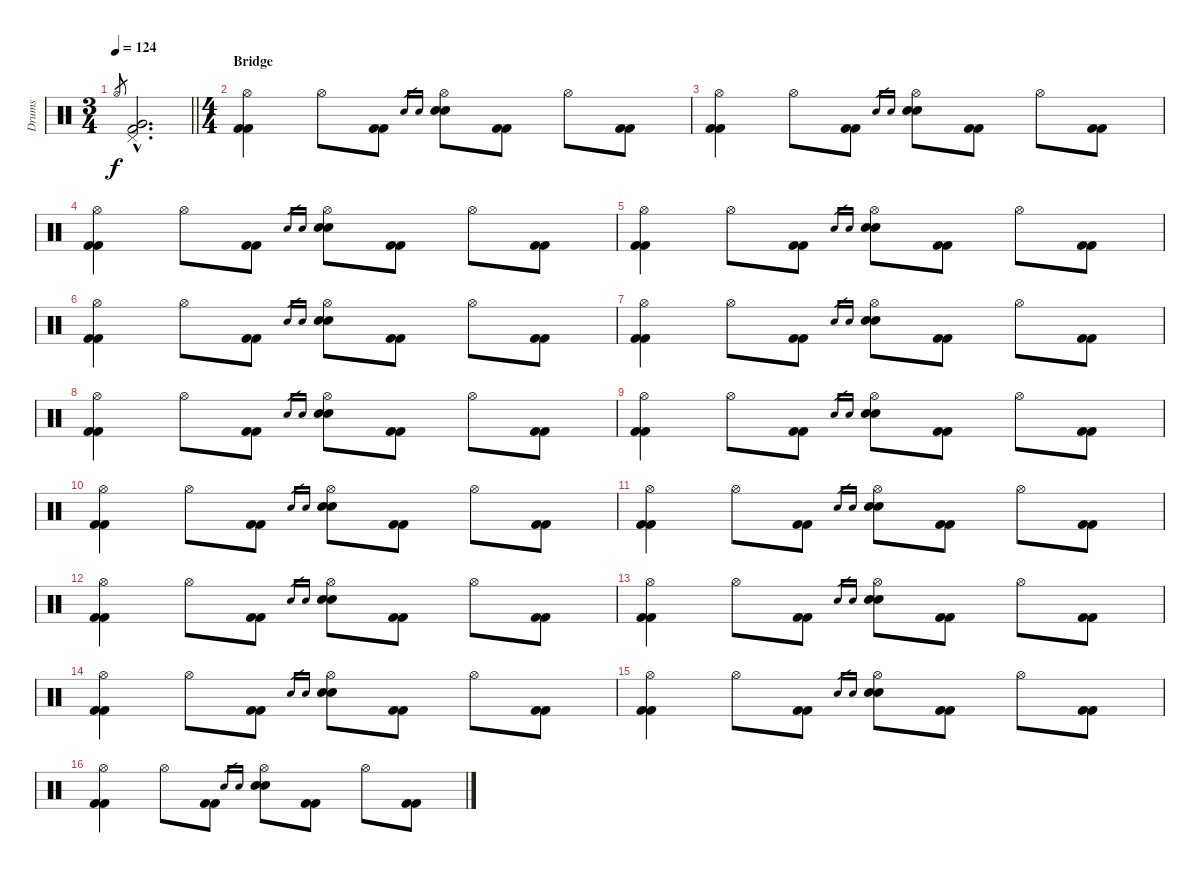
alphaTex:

\track ("Drums" "Drums") {instrument percussion}
\staff {score}
\articulation defaults
\ts (3 4)
\tempo 124
\clef neutral
\barLineRight lightlight
\ks c "Hi-Hat (open)".8{gr dy f}
("Pedal Hi-Hat (hit)"{hac} "Very Low Tom (hit)"{hac} "Kick (hit) 2"{hac}).2{d} |
\ts (4 4)
\section ("" "Bridge")
("Hi-Hat (open)" "Kick (hit) 2" "Kick (hit) 2").4 "Hi-Hat (open)".8 ("Kick (hit) 2" "Kick (hit) 2").8 "Electric Snare (hit)".16{gr} "Electric Snare (hit)".16{gr} ("Hi-Hat (open)" "Electric Snare (hit)" "Electric Snare (hit)").8 ("Kick (hit) 2" "Kick (hit) 2").8 "Hi-Hat (open)".8 ("Kick (hit) 2" "Kick (hit) 2").8 |
("Hi-Hat (open)" "Kick (hit) 2" "Kick (hit) 2").4 "Hi-Hat (open)".8 ("Kick (hit) 2" "Kick (hit) 2").8 "Electric Snare (hit)".16{gr} "Electric Snare (hit)".16{gr} ("Hi-Hat (open)" "Electric Snare (hit)" "Electric Snare (hit)").8 ("Kick (hit) 2" "Kick (hit) 2").8 "Hi-Hat (open)".8 ("Kick (hit) 2" "Kick (hit) 2").8 |
("Hi-Hat (open)" "Kick (hit) 2" "Kick (hit) 2").4 "Hi-Hat (open)".8 ("Kick (hit) 2" "Kick (hit) 2").8 "Electric Snare (hit)".16{gr} "Electric Snare (hit)".16{gr} ("Hi-Hat (open)" "Electric Snare (hit)" "Electric Snare (hit)").8 ("Kick (hit) 2" "Kick (hit) 2").8 "Hi-Hat (open)".8 ("Kick (hit) 2" "Kick (hit) 2").8 |
("Hi-Hat (open)" "Kick (hit) 2" "Kick (hit) 2").4 "Hi-Hat (open)".8 ("Kick (hit) 2" "Kick (hit) 2").8 "Electric Snare (hit)".16{gr} "Electric Snare (hit)".16{gr} ("Hi-Hat (open)" "Electric Snare (hit)" "Electric Snare (hit)").8 ("Kick (hit) 2" "Kick (hit) 2").8 "Hi-Hat (open)".8 ("Kick (hit) 2" "Kick (hit) 2").8 |
("Hi-Hat (open)" "Kick (hit) 2" "Kick (hit) 2").4 "Hi-Hat (open)".8 ("Kick (hit) 2" "Kick (hit) 2").8 "Electric Snare (hit)".16{gr} "Electric Snare (hit)".16{gr} ("Hi-Hat (open)" "Electric Snare (hit)" "Electric Snare (hit)").8 ("Kick (hit) 2" "Kick (hit) 2").8 "Hi-Hat (open)".8 ("Kick (hit) 2" "Kick (hit) 2").8 |
("Hi-Hat (open)" "Kick (hit) 2" "Kick (hit) 2").4 "Hi-Hat (open)".8 ("Kick (hit) 2" "Kick (hit) 2").8 "Electric Snare (hit)".16{gr} "Electric Snare (hit)".16{gr} ("Hi-Hat (open)" "Electric Snare (hit)" "Electric Snare (hit)").8 ("Kick (hit) 2" "Kick (hit) 2").8 "Hi-Hat (open)".8 ("Kick (hit) 2" "Kick (hit) 2").8 |
("Hi-Hat (open)" "Kick (hit) 2" "Kick (hit) 2").4 "Hi-Hat (open)".8 ("Kick (hit) 2" "Kick (hit) 2").8 "Electric Snare (hit)".16{gr} "Electric Snare (hit)".16{gr} ("Hi-Hat (open)" "Electric Snare (hit)" "Electric Snare (hit)").8 ("Kick (hit) 2" "Kick (hit) 2").8 "Hi-Hat (open)".8 ("Kick (hit) 2" "Kick (hit) 2").8 |
("Hi-Hat (open)" "Kick (hit) 2" "Kick (hit) 2").4 "Hi-Hat (open)".8 ("Kick (hit) 2" "Kick (hit) 2").8 "Electric Snare (hit)".16{gr} "Electric Snare (hit)".16{gr} ("Hi-Hat (open)" "Electric Snare (hit)" "Electric Snare (hit)").8 ("Kick (hit) 2" "Kick (hit) 2").8 "Hi-Hat (open)".8 ("Kick (hit) 2" "Kick (hit) 2").8 |
("Hi-Hat (open)" "Kick (hit) 2" "Kick (hit) 2").4 "Hi-Hat (open)".8 ("Kick (hit) 2" "Kick (hit) 2").8 "Electric Snare (hit)".16{gr} "Electric Snare (hit)".16{gr} ("Hi-Hat (open)" "Electric Snare (hit)" "Electric Snare (hit)").8 ("Kick (hit) 2" "Kick (hit) 2").8 "Hi-Hat (open)".8 ("Kick (hit) 2" "Kick (hit) 2").8 |
("Hi-Hat (open)" "Kick (hit) 2" "Kick (hit) 2").4 "Hi-Hat (open)".8 ("Kick (hit) 2" "Kick (hit) 2").8 "Electric Snare (hit)".16{gr} "Electric Snare (hit)".16{gr} ("Hi-Hat (open)" "Electric Snare (hit)" "Electric Snare (hit)").8 ("Kick (hit) 2" "Kick (hit) 2").8 "Hi-Hat (open)".8 ("Kick (hit) 2" "Kick (hit) 2").8 |
("Hi-Hat (open)" "Kick (hit) 2" "Kick (hit) 2").4 "Hi-Hat (open)".8 ("Kick (hit) 2" "Kick (hit) 2").8 "Electric Snare (hit)".16{gr} "Electric Snare (hit)".16{gr} ("Hi-Hat (open)" "Electric Snare (hit)" "Electric Snare (hit)").8 ("Kick (hit) 2" "Kick (hit) 2").8 "Hi-Hat (open)".8 ("Kick (hit) 2" "Kick (hit) 2").8 |
("Hi-Hat (open)" "Kick (hit) 2" "Kick (hit) 2").4 "Hi-Hat (open)".8 ("Kick (hit) 2" "Kick (hit) 2").8 "Electric Snare (hit)".16{gr} "Electric Snare (hit)".16{gr} ("Hi-Hat (open)" "Electric Snare (hit)" "Electric Snare (hit)").8 ("Kick (hit) 2" "Kick (hit) 2").8 "Hi-Hat (open)".8 ("Kick (hit) 2" "Kick (hit) 2").8 |
("Hi-Hat (open)" "Kick (hit) 2" "Kick (hit) 2").4 "Hi-Hat (open)".8 ("Kick (hit) 2" "Kick (hit) 2").8 "Electric Snare (hit)".16{gr} "Electric Snare (hit)".16{gr} ("Hi-Hat (open)" "Electric Snare (hit)" "Electric Snare (hit)").8 ("Kick (hit) 2" "Kick (hit) 2").8 "Hi-Hat (open)".8 ("Kick (hit) 2" "Kick (hit) 2").8 |
("Hi-Hat (open)" "Kick (hit) 2" "Kick (hit) 2").4 "Hi-Hat (open)".8 ("Kick (hit) 2" "Kick (hit) 2").8 "Electric Snare (hit)".16{gr} "Electric Snare (hit)".16{gr} ("Hi-Hat (open)" "Electric Snare (hit)" "Electric Snare (hit)").8 ("Kick (hit) 2" "Kick (hit) 2").8 "Hi-Hat (open)".8 ("Kick (hit) 2" "Kick (hit) 2").8 |
("Hi-Hat (open)" "Kick (hit) 2" "Kick (hit) 2").4 "Hi-Hat (open)".8 ("Kick (hit) 2" "Kick (hit) 2").8 "Electric Snare (hit)".16{gr} "Electric Snare (hit)".16{gr} ("Hi-Hat (open)" "Electric Snare (hit)" "Electric Snare (hit)").8 ("Kick (hit) 2" "Kick (hit) 2").8 "Hi-Hat (open)".8 ("Kick (hit) 2" "Kick (hit) 2").8
